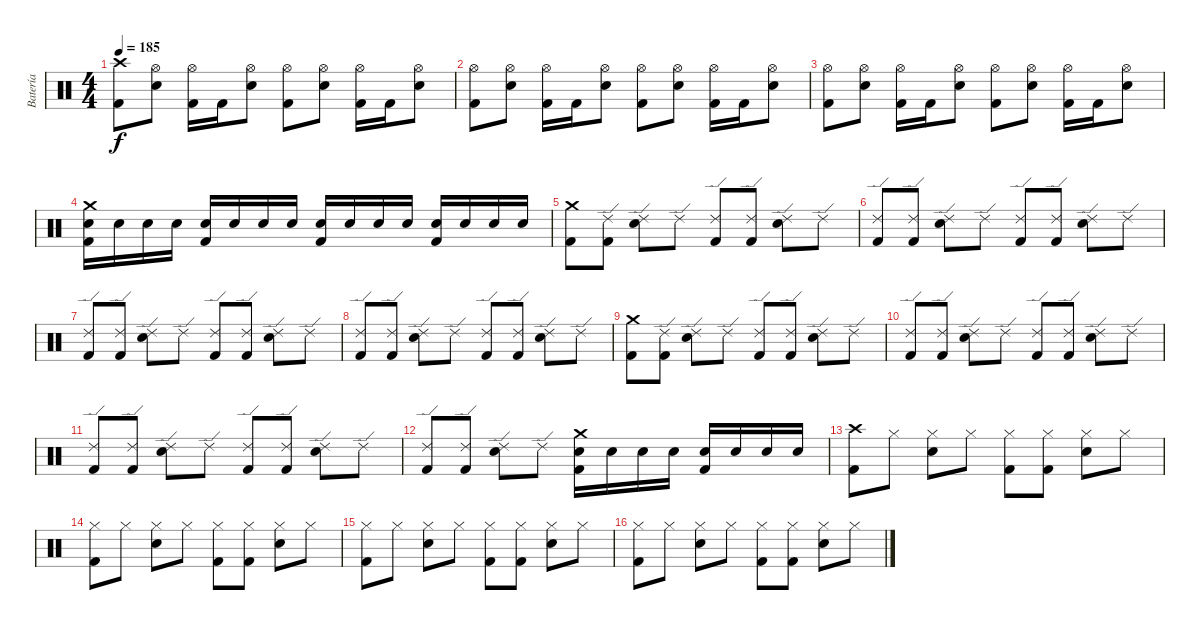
\track ("Batería" "Batería") {instrument percussion}
\staff {score}
\articulation defaults
\ts (4 4)
\tempo 185
\clef neutral
\ks c
("Crash high (hit)" "Kick (hit) 2").8{dy f} ("Hi-Hat (open)" "Electric Snare (hit)").8 ("Hi-Hat (open)" "Kick (hit) 2").16 "Kick (hit) 2".16 ("Hi-Hat (open)" "Electric Snare (hit)").8 ("Hi-Hat (open)" "Kick (hit) 2").8 ("Hi-Hat (open)" "Electric Snare (hit)").8 ("Hi-Hat (open)" "Kick (hit) 2").16 "Kick (hit) 2".16 ("Hi-Hat (open)" "Electric Snare (hit)").8 |
("Hi-Hat (open)" "Kick (hit) 2").8 ("Hi-Hat (open)" "Electric Snare (hit)").8 ("Hi-Hat (open)" "Kick (hit) 2").16 "Kick (hit) 2".16 ("Hi-Hat (open)" "Electric Snare (hit)").8 ("Hi-Hat (open)" "Kick (hit) 2").8 ("Hi-Hat (open)" "Electric Snare (hit)").8 ("Hi-Hat (open)" "Kick (hit) 2").16 "Kick (hit) 2".16 ("Hi-Hat (open)" "Electric Snare (hit)").8 |
("Hi-Hat (open)" "Kick (hit) 2").8 ("Hi-Hat (open)" "Electric Snare (hit)").8 ("Hi-Hat (open)" "Kick (hit) 2").16 "Kick (hit) 2".16 ("Hi-Hat (open)" "Electric Snare (hit)").8 ("Hi-Hat (open)" "Kick (hit) 2").8 ("Hi-Hat (open)" "Electric Snare (hit)").8 ("Hi-Hat (open)" "Kick (hit) 2").16 "Kick (hit) 2".16 ("Hi-Hat (open)" "Electric Snare (hit)").8 |
("Crash medium (hit)" "Electric Snare (hit)" "Kick (hit) 2").16 "Electric Snare (hit)".16 "Electric Snare (hit)".16 "Electric Snare (hit)".16 ("Electric Snare (hit)" "Kick (hit) 2").16 "Electric Snare (hit)".16 "Electric Snare (hit)".16 "Electric Snare (hit)".16 ("Electric Snare (hit)" "Kick (hit) 2").16 "Electric Snare (hit)".16 "Electric Snare (hit)".16 "Electric Snare (hit)".16 ("Electric Snare (hit)" "Kick (hit) 2").16 "Electric Snare (hit)".16 "Electric Snare (hit)".16 "Electric Snare (hit)".16 |
("Crash medium (hit)" "Kick (hit) 2").8 ("Ride (edge) 2" "Kick (hit) 2").8 ("Ride (edge) 2" "Electric Snare (hit)").8 "Ride (edge) 2".8 ("Ride (edge) 2" "Kick (hit) 2").8 ("Ride (edge) 2" "Kick (hit) 2").8 ("Ride (edge) 2" "Electric Snare (hit)").8 "Ride (edge) 2".8 |
("Ride (edge) 2" "Kick (hit) 2").8 ("Ride (edge) 2" "Kick (hit) 2").8 ("Ride (edge) 2" "Electric Snare (hit)").8 "Ride (edge) 2".8 ("Ride (edge) 2" "Kick (hit) 2").8 ("Ride (edge) 2" "Kick (hit) 2").8 ("Ride (edge) 2" "Electric Snare (hit)").8 "Ride (edge) 2".8 |
("Ride (edge) 2" "Kick (hit) 2").8 ("Ride (edge) 2" "Kick (hit) 2").8 ("Ride (edge) 2" "Electric Snare (hit)").8 "Ride (edge) 2".8 ("Ride (edge) 2" "Kick (hit) 2").8 ("Ride (edge) 2" "Kick (hit) 2").8 ("Ride (edge) 2" "Electric Snare (hit)").8 "Ride (edge) 2".8 |
("Ride (edge) 2" "Kick (hit) 2").8 ("Ride (edge) 2" "Kick (hit) 2").8 ("Ride (edge) 2" "Electric Snare (hit)").8 "Ride (edge) 2".8 ("Ride (edge) 2" "Kick (hit) 2").8 ("Ride (edge) 2" "Kick (hit) 2").8 ("Ride (edge) 2" "Electric Snare (hit)").8 "Ride (edge) 2".8 |
("Crash medium (hit)" "Kick (hit) 2").8 ("Ride (edge) 2" "Kick (hit) 2").8 ("Ride (edge) 2" "Electric Snare (hit)").8 "Ride (edge) 2".8 ("Ride (edge) 2" "Kick (hit) 2").8 ("Ride (edge) 2" "Kick (hit) 2").8 ("Ride (edge) 2" "Electric Snare (hit)").8 "Ride (edge) 2".8 |
("Ride (edge) 2" "Kick (hit) 2").8 ("Ride (edge) 2" "Kick (hit) 2").8 ("Ride (edge) 2" "Electric Snare (hit)").8 "Ride (edge) 2".8 ("Ride (edge) 2" "Kick (hit) 2").8 ("Ride (edge) 2" "Kick (hit) 2").8 ("Ride (edge) 2" "Electric Snare (hit)").8 "Ride (edge) 2".8 |
("Ride (edge) 2" "Kick (hit) 2").8 ("Ride (edge) 2" "Kick (hit) 2").8 ("Ride (edge) 2" "Electric Snare (hit)").8 "Ride (edge) 2".8 ("Ride (edge) 2" "Kick (hit) 2").8 ("Ride (edge) 2" "Kick (hit) 2").8 ("Ride (edge) 2" "Electric Snare (hit)").8 "Ride (edge) 2".8 |
("Ride (edge) 2" "Kick (hit) 2").8 ("Ride (edge) 2" "Kick (hit) 2").8 ("Ride (edge) 2" "Electric Snare (hit)").8 "Ride (edge) 2".8 ("Crash medium (hit)" "Electric Snare (hit)" "Kick (hit) 2").16 "Electric Snare (hit)".16 "Electric Snare (hit)".16 "Electric Snare (hit)".16 ("Electric Snare (hit)" "Kick (hit) 2").16 "Electric Snare (hit)".16 "Electric Snare (hit)".16 "Electric Snare (hit)".16 |
("Crash high (hit)" "Kick (hit) 2").8 "Hi-Hat (closed)".8 ("Hi-Hat (closed)" "Electric Snare (hit)").8 "Hi-Hat (closed)".8 ("Hi-Hat (closed)" "Kick (hit) 2").8 ("Hi-Hat (closed)" "Kick (hit) 2").8 ("Hi-Hat (closed)" "Electric Snare (hit)").8 "Hi-Hat (closed)".8 |
("Hi-Hat (closed)" "Kick (hit) 2").8 "Hi-Hat (closed)".8 ("Hi-Hat (closed)" "Electric Snare (hit)").8 "Hi-Hat (closed)".8 ("Hi-Hat (closed)" "Kick (hit) 2").8 ("Hi-Hat (closed)" "Kick (hit) 2").8 ("Hi-Hat (closed)" "Electric Snare (hit)").8 "Hi-Hat (closed)".8 |
("Hi-Hat (closed)" "Kick (hit) 2").8 "Hi-Hat (closed)".8 ("Hi-Hat (closed)" "Electric Snare (hit)").8 "Hi-Hat (closed)".8 ("Hi-Hat (closed)" "Kick (hit) 2").8 ("Hi-Hat (closed)" "Kick (hit) 2").8 ("Hi-Hat (closed)" "Electric Snare (hit)").8 "Hi-Hat (closed)".8 |
("Hi-Hat (closed)" "Kick (hit) 2").8 "Hi-Hat (closed)".8 ("Hi-Hat (closed)" "Electric Snare (hit)").8 "Hi-Hat (closed)".8 ("Hi-Hat (closed)" "Kick (hit) 2").8 ("Hi-Hat (closed)" "Kick (hit) 2").8 ("Hi-Hat (closed)" "Electric Snare (hit)").8 "Hi-Hat (closed)".8
